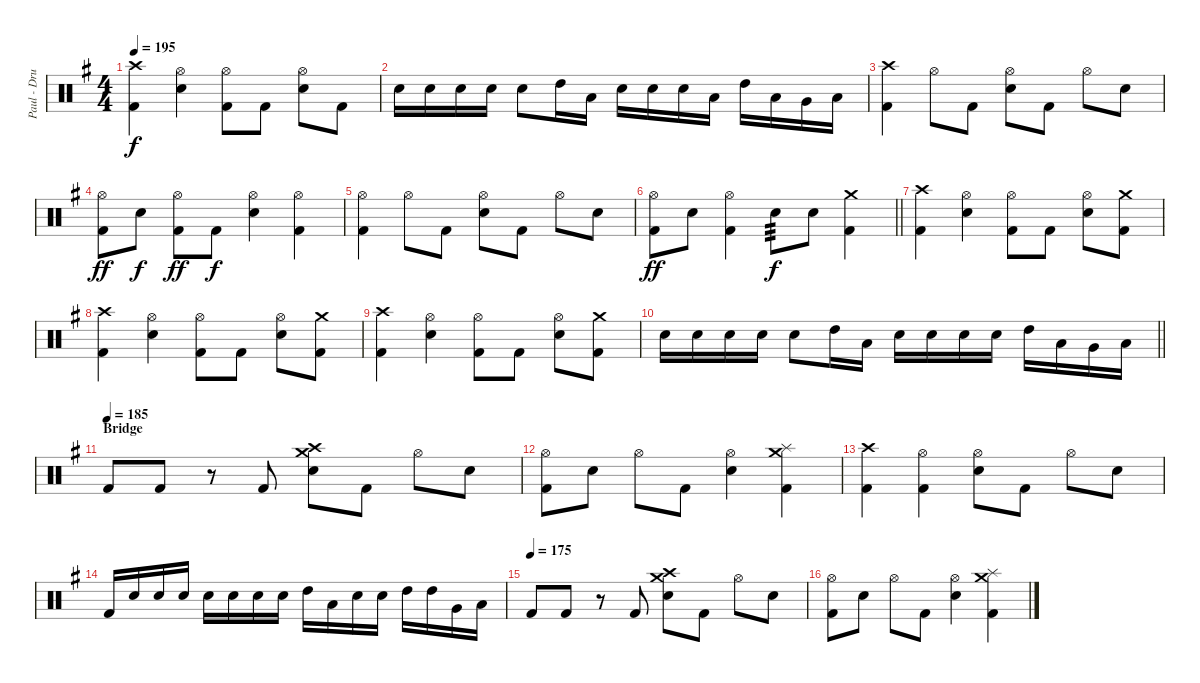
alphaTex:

\track ("Paul - Drums" "Paul - Dru") {instrument percussion}
\staff {score}
\articulation defaults
\ts (4 4)
\tempo 195
\clef neutral
\ks g
("Crash high (hit)" "Kick (hit) 2").4{dy f} ("Hi-Hat (open)" "Electric Snare (hit)").4 ("Hi-Hat (open)" "Kick (hit) 2").8 "Kick (hit) 2".8 ("Hi-Hat (open)" "Electric Snare (hit)").8 "Kick (hit) 2".8 |
"Electric Snare (hit)".16 "Electric Snare (hit)".16 "Electric Snare (hit)".16 "Electric Snare (hit)".16 "Electric Snare (hit)".8 "High Tom (hit)".16 "Low Tom (hit)".16 "Electric Snare (hit)".16 "Electric Snare (hit)".16 "Electric Snare (hit)".16 "Low Tom (hit)".16 "High Tom (hit)".16 "Low Tom (hit)".16 "Very Low Tom (hit)".16 "Low Floor Tom (hit)".16 |
("Crash high (hit)" "Kick (hit) 2").4 "Hi-Hat (open)".8 "Kick (hit) 2".8 ("Hi-Hat (open)" "Electric Snare (hit)").8 "Kick (hit) 2".8 "Hi-Hat (open)".8 "Electric Snare (hit)".8 |
("Hi-Hat (open)" "Kick (hit) 2").8{dy ff} "Electric Snare (hit)".8{dy f} ("Hi-Hat (open)" "Kick (hit) 2").8{dy ff} "Kick (hit) 2".8{dy f} ("Hi-Hat (open)" "Electric Snare (hit)").4 ("Hi-Hat (open)" "Kick (hit) 2").4 |
("Hi-Hat (open)" "Kick (hit) 2").4 "Hi-Hat (open)".8 "Kick (hit) 2".8 ("Hi-Hat (open)" "Electric Snare (hit)").8 "Kick (hit) 2".8 "Hi-Hat (open)".8 "Electric Snare (hit)".8 |
\barLineRight lightlight
("Hi-Hat (open)" "Kick (hit) 2").8{dy ff} "Electric Snare (hit)".8 ("Hi-Hat (open)" "Kick (hit) 2").4 "Electric Snare (hit)".8{tp 3 dy f} "Electric Snare (hit)".8 ("Crash medium (hit)" "Kick (hit) 2").4 |
\section ("" "")
("Crash high (hit)" "Kick (hit) 2").4 ("Hi-Hat (open)" "Electric Snare (hit)").4 ("Hi-Hat (open)" "Kick (hit) 2").8 "Kick (hit) 2".8 ("Hi-Hat (open)" "Electric Snare (hit)").8 ("Crash medium (hit)" "Kick (hit) 2").8 |
("Crash high (hit)" "Kick (hit) 2").4 ("Hi-Hat (open)" "Electric Snare (hit)").4 ("Hi-Hat (open)" "Kick (hit) 2").8 "Kick (hit) 2".8 ("Hi-Hat (open)" "Electric Snare (hit)").8 ("Crash medium (hit)" "Kick (hit) 2").8 |
("Crash high (hit)" "Kick (hit) 2").4 ("Hi-Hat (open)" "Electric Snare (hit)").4 ("Hi-Hat (open)" "Kick (hit) 2").8 "Kick (hit) 2".8 ("Hi-Hat (open)" "Electric Snare (hit)").8 ("Crash medium (hit)" "Kick (hit) 2").8 |
\barLineRight lightlight "Electric Snare (hit)".16 "Electric Snare (hit)".16 "Electric Snare (hit)".16 "Electric Snare (hit)".16 "Electric Snare (hit)".8 "High Tom (hit)".16 "Low Tom (hit)".16 "Electric Snare (hit)".16 "Electric Snare (hit)".16 "Electric Snare (hit)".16 "Electric Snare (hit)".16 "High Tom (hit)".16 "Low Tom (hit)".16 "Very Low Tom (hit)".16 "Low Floor Tom (hit)".16
|
\section ("" "Bridge")
\tempo (185)
"Kick (hit) 2".8 "Kick (hit) 2".8 r.8 "Kick (hit) 2".8 ("Crash high (hit)" "Crash medium (hit)" "Electric Snare (hit)").8 "Kick (hit) 2".8 "Hi-Hat (open)".8 "Electric Snare (hit)".8 |
("Hi-Hat (open)" "Kick (hit) 2").8 "Electric Snare (hit)".8 "Hi-Hat (open)".8 "Kick (hit) 2".8 ("Hi-Hat (open)" "Electric Snare (hit)").4 ("Crash medium (hit)" "Splash (hit)" "Kick (hit) 2").4 |
("Crash high (hit)" "Kick (hit) 2").4 ("Hi-Hat (open)" "Kick (hit) 2").4 ("Hi-Hat (open)" "Electric Snare (hit)").8 "Kick (hit) 2".8 "Hi-Hat (open)".8 "Electric Snare (hit)".8 |
"Kick (hit) 2".16 "Electric Snare (hit)".16 "Electric Snare (hit)".16 "Electric Snare (hit)".16 "Electric Snare (hit)".16 "Electric Snare (hit)".16 "Electric Snare (hit)".16 "Electric Snare (hit)".16 "High Tom (hit)".16 "Low Tom (hit)".16 "Electric Snare (hit)".16 "Electric Snare (hit)".16 "High Tom (hit)".16 "High Tom (hit)".16 "Very Low Tom (hit)".16 "Low Floor Tom (hit)".16 |
\tempo (175)
"Kick (hit) 2".8 "Kick (hit) 2".8 r.8 "Kick (hit) 2".8 ("Crash high (hit)" "Crash medium (hit)" "Electric Snare (hit)").8 "Kick (hit) 2".8 "Hi-Hat (open)".8 "Electric Snare (hit)".8 |
("Hi-Hat (open)" "Kick (hit) 2").8 "Electric Snare (hit)".8 "Hi-Hat (open)".8 "Kick (hit) 2".8 ("Hi-Hat (open)" "Electric Snare (hit)").4 ("Crash medium (hit)" "Splash (hit)" "Kick (hit) 2").4
